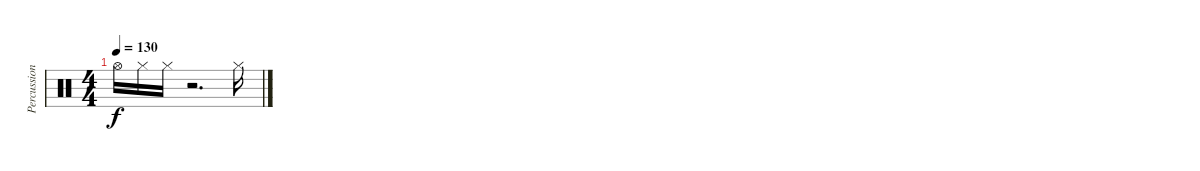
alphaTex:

\track ("Percussion" "Percussion") {instrument percussion}
\staff {score}
\articulation defaults
\ts (4 4)
\tempo 130
\clef neutral
\ks c "Hi-Hat (open)".16{dy f} "Hi-Hat (closed)".16 "Hi-Hat (closed)".16
r.2{d} "Hi-Hat (closed)".16
